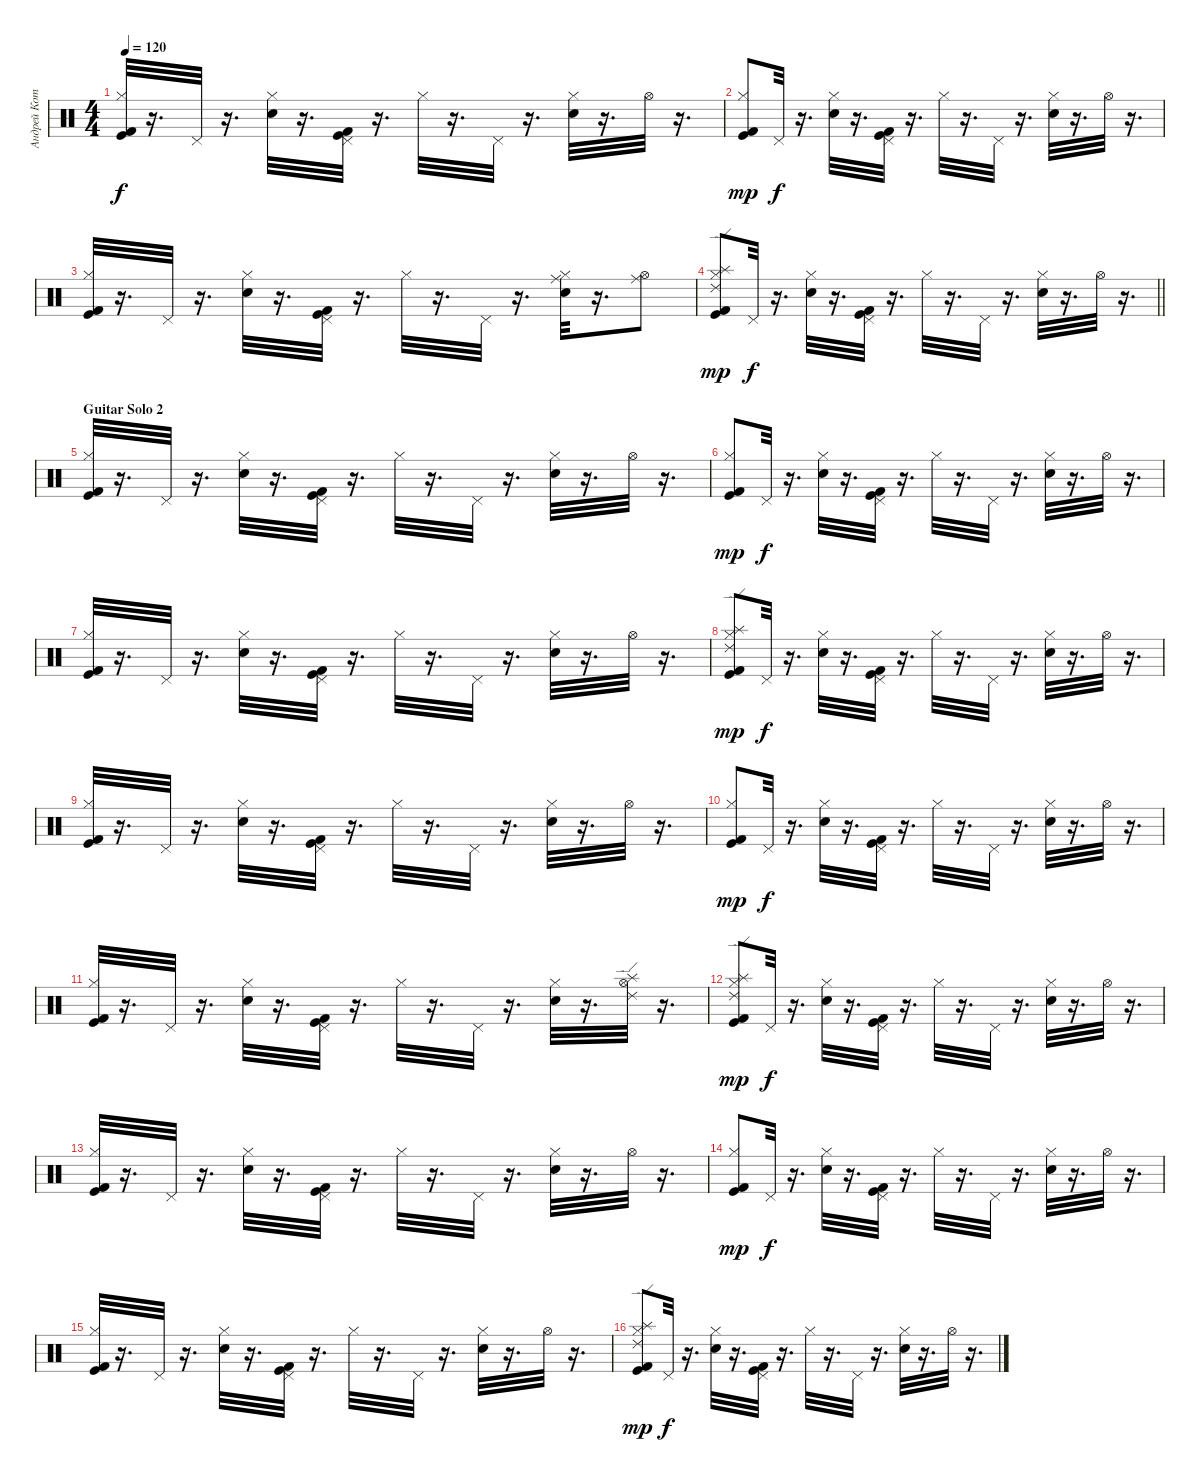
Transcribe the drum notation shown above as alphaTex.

\track ("Андрей Котов " "Андрей Кот") {instrument percussion}
\staff {score}
\articulation defaults
\ts (4 4)
\tempo 120
\clef neutral
\ks c
("Kick (hit)" "Hi-Hat (closed)" "Kick (hit) 2").32{dy f} r.16{d} "Pedal Hi-Hat (hit)".32 r.16{d} ("Hi-Hat (closed)" "Snare (hit) 2").32 r.16{d} ("Kick (hit)" "Pedal Hi-Hat (hit)" "Kick (hit) 2").32 r.16{d} "Hi-Hat (closed)".32 r.16{d} "Pedal Hi-Hat (hit)".32 r.16{d} ("Hi-Hat (closed)" "Snare (hit) 2").32 r.16{d} "Hi-Hat (open)".32 r.16{d} |
("Kick (hit)" "Hi-Hat (closed)" "Kick (hit) 2").8{dy mp} "Pedal Hi-Hat (hit)".32{dy f} r.16{d} ("Hi-Hat (closed)" "Snare (hit) 2").32 r.16{d} ("Kick (hit)" "Pedal Hi-Hat (hit)" "Kick (hit) 2").32 r.16{d} "Hi-Hat (closed)".32 r.16{d} "Pedal Hi-Hat (hit)".32 r.16{d} ("Hi-Hat (closed)" "Snare (hit) 2").32 r.16{d} "Hi-Hat (open)".32 r.16{d} |
("Kick (hit)" "Hi-Hat (closed)" "Kick (hit) 2").32 r.16{d} "Pedal Hi-Hat (hit)".32 r.16{d} ("Hi-Hat (closed)" "Snare (hit) 2").32 r.16{d} ("Kick (hit)" "Pedal Hi-Hat (hit)" "Kick (hit) 2").32 r.16{d} "Hi-Hat (closed)".32 r.16{d} "Pedal Hi-Hat (hit)".32 r.16{d} ("Ride (middle)" "Hi-Hat (closed)" "Snare (hit) 2").32 r.16{d} ("Ride (middle)" "Hi-Hat (open)").8 |
\barLineRight lightlight
("Kick (hit)" "Splash (hit)" "Ride (edge) 2" "Hi-Hat (closed)" "Kick (hit) 2").8{dy mp} "Pedal Hi-Hat (hit)".32{dy f} r.16{d} ("Hi-Hat (closed)" "Snare (hit) 2").32 r.16{d} ("Kick (hit)" "Pedal Hi-Hat (hit)" "Kick (hit) 2").32 r.16{d} "Hi-Hat (closed)".32 r.16{d} "Pedal Hi-Hat (hit)".32 r.16{d} ("Hi-Hat (closed)" "Snare (hit) 2").32 r.16{d} "Hi-Hat (open)".32 r.16{d} |
\section ("" "Guitar Solo 2")
("Kick (hit)" "Hi-Hat (closed)" "Kick (hit) 2").32 r.16{d} "Pedal Hi-Hat (hit)".32 r.16{d} ("Hi-Hat (closed)" "Snare (hit) 2").32 r.16{d} ("Kick (hit)" "Pedal Hi-Hat (hit)" "Kick (hit) 2").32 r.16{d} "Hi-Hat (closed)".32 r.16{d} "Pedal Hi-Hat (hit)".32 r.16{d} ("Hi-Hat (closed)" "Snare (hit) 2").32 r.16{d} "Hi-Hat (open)".32 r.16{d} |
("Kick (hit)" "Hi-Hat (closed)" "Kick (hit) 2").8{dy mp} "Pedal Hi-Hat (hit)".32{dy f} r.16{d} ("Hi-Hat (closed)" "Snare (hit) 2").32 r.16{d} ("Kick (hit)" "Pedal Hi-Hat (hit)" "Kick (hit) 2").32 r.16{d} "Hi-Hat (closed)".32 r.16{d} "Pedal Hi-Hat (hit)".32 r.16{d} ("Hi-Hat (closed)" "Snare (hit) 2").32 r.16{d} "Hi-Hat (open)".32 r.16{d} |
("Kick (hit)" "Hi-Hat (closed)" "Kick (hit) 2").32 r.16{d} "Pedal Hi-Hat (hit)".32 r.16{d} ("Hi-Hat (closed)" "Snare (hit) 2").32 r.16{d} ("Kick (hit)" "Pedal Hi-Hat (hit)" "Kick (hit) 2").32 r.16{d} "Hi-Hat (closed)".32 r.16{d} "Pedal Hi-Hat (hit)".32 r.16{d} ("Hi-Hat (closed)" "Snare (hit) 2").32 r.16{d} "Hi-Hat (open)".32 r.16{d} |
("Kick (hit)" "Splash (hit)" "Ride (edge) 2" "Hi-Hat (closed)" "Kick (hit) 2").8{dy mp} "Pedal Hi-Hat (hit)".32{dy f} r.16{d} ("Hi-Hat (closed)" "Snare (hit) 2").32 r.16{d} ("Kick (hit)" "Pedal Hi-Hat (hit)" "Kick (hit) 2").32 r.16{d} "Hi-Hat (closed)".32 r.16{d} "Pedal Hi-Hat (hit)".32 r.16{d} ("Hi-Hat (closed)" "Snare (hit) 2").32 r.16{d} "Hi-Hat (open)".32 r.16{d} |
("Kick (hit)" "Hi-Hat (closed)" "Kick (hit) 2").32 r.16{d} "Pedal Hi-Hat (hit)".32 r.16{d} ("Hi-Hat (closed)" "Snare (hit) 2").32 r.16{d} ("Kick (hit)" "Pedal Hi-Hat (hit)" "Kick (hit) 2").32 r.16{d} "Hi-Hat (closed)".32 r.16{d} "Pedal Hi-Hat (hit)".32 r.16{d} ("Hi-Hat (closed)" "Snare (hit) 2").32 r.16{d} "Hi-Hat (open)".32 r.16{d} |
("Kick (hit)" "Hi-Hat (closed)" "Kick (hit) 2").8{dy mp} "Pedal Hi-Hat (hit)".32{dy f} r.16{d} ("Hi-Hat (closed)" "Snare (hit) 2").32 r.16{d} ("Kick (hit)" "Pedal Hi-Hat (hit)" "Kick (hit) 2").32 r.16{d} "Hi-Hat (closed)".32 r.16{d} "Pedal Hi-Hat (hit)".32 r.16{d} ("Hi-Hat (closed)" "Snare (hit) 2").32 r.16{d} "Hi-Hat (open)".32 r.16{d} |
("Kick (hit)" "Hi-Hat (closed)" "Kick (hit) 2").32 r.16{d} "Pedal Hi-Hat (hit)".32 r.16{d} ("Hi-Hat (closed)" "Snare (hit) 2").32 r.16{d} ("Kick (hit)" "Pedal Hi-Hat (hit)" "Kick (hit) 2").32 r.16{d} "Hi-Hat (closed)".32 r.16{d} "Pedal Hi-Hat (hit)".32 r.16{d} ("Hi-Hat (closed)" "Snare (hit) 2").32 r.16{d} ("Splash (hit)" "Ride (edge) 2" "Hi-Hat (open)").32 r.16{d} |
("Kick (hit)" "Splash (hit)" "Ride (edge) 2" "Hi-Hat (closed)" "Kick (hit) 2").8{dy mp} "Pedal Hi-Hat (hit)".32{dy f} r.16{d} ("Hi-Hat (closed)" "Snare (hit) 2").32 r.16{d} ("Kick (hit)" "Pedal Hi-Hat (hit)" "Kick (hit) 2").32 r.16{d} "Hi-Hat (closed)".32 r.16{d} "Pedal Hi-Hat (hit)".32 r.16{d} ("Hi-Hat (closed)" "Snare (hit) 2").32 r.16{d} "Hi-Hat (open)".32 r.16{d} |
("Kick (hit)" "Hi-Hat (closed)" "Kick (hit) 2").32 r.16{d} "Pedal Hi-Hat (hit)".32 r.16{d} ("Hi-Hat (closed)" "Snare (hit) 2").32 r.16{d} ("Kick (hit)" "Pedal Hi-Hat (hit)" "Kick (hit) 2").32 r.16{d} "Hi-Hat (closed)".32 r.16{d} "Pedal Hi-Hat (hit)".32 r.16{d} ("Hi-Hat (closed)" "Snare (hit) 2").32 r.16{d} "Hi-Hat (open)".32 r.16{d} |
("Kick (hit)" "Hi-Hat (closed)" "Kick (hit) 2").8{dy mp} "Pedal Hi-Hat (hit)".32{dy f} r.16{d} ("Hi-Hat (closed)" "Snare (hit) 2").32 r.16{d} ("Kick (hit)" "Pedal Hi-Hat (hit)" "Kick (hit) 2").32 r.16{d} "Hi-Hat (closed)".32 r.16{d} "Pedal Hi-Hat (hit)".32 r.16{d} ("Hi-Hat (closed)" "Snare (hit) 2").32 r.16{d} "Hi-Hat (open)".32 r.16{d} |
("Kick (hit)" "Hi-Hat (closed)" "Kick (hit) 2").32 r.16{d} "Pedal Hi-Hat (hit)".32 r.16{d} ("Hi-Hat (closed)" "Snare (hit) 2").32 r.16{d} ("Kick (hit)" "Pedal Hi-Hat (hit)" "Kick (hit) 2").32 r.16{d} "Hi-Hat (closed)".32 r.16{d} "Pedal Hi-Hat (hit)".32 r.16{d} ("Hi-Hat (closed)" "Snare (hit) 2").32 r.16{d} "Hi-Hat (open)".32 r.16{d} |
("Kick (hit)" "Splash (hit)" "Ride (edge) 2" "Hi-Hat (closed)" "Kick (hit) 2").8{dy mp} "Pedal Hi-Hat (hit)".32{dy f} r.16{d} ("Hi-Hat (closed)" "Snare (hit) 2").32 r.16{d} ("Kick (hit)" "Pedal Hi-Hat (hit)" "Kick (hit) 2").32 r.16{d} "Hi-Hat (closed)".32 r.16{d} "Pedal Hi-Hat (hit)".32 r.16{d} ("Hi-Hat (closed)" "Snare (hit) 2").32 r.16{d} "Hi-Hat (open)".32 r.16{d}
